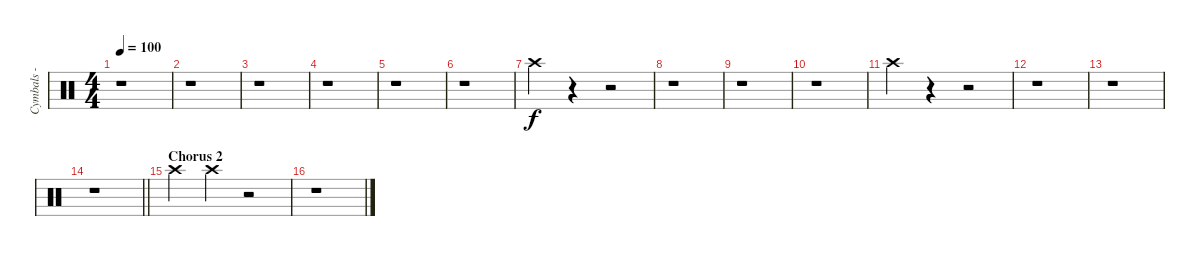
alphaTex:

\track ("Cymbals - crash - left" "Cymbals - ") {instrument percussion}
\staff {score}
\articulation defaults
\ts (4 4)
\tempo 100
\clef neutral
\ks c
r.1{dy f} |
r.1 |
r.1 |
r.1 |
r.1 |
r.1 |
"Crash high (hit)".4 r.4 r.2 |
r.1 |
r.1 |
r.1 |
"Crash high (hit)".4 r.4 r.2 |
r.1 |
r.1 |
\barLineRight lightlight
r.1 |
\section ("" "Chorus 2")
"Crash high (hit)".4 "Crash high (hit)".4 r.2 |
r.1
